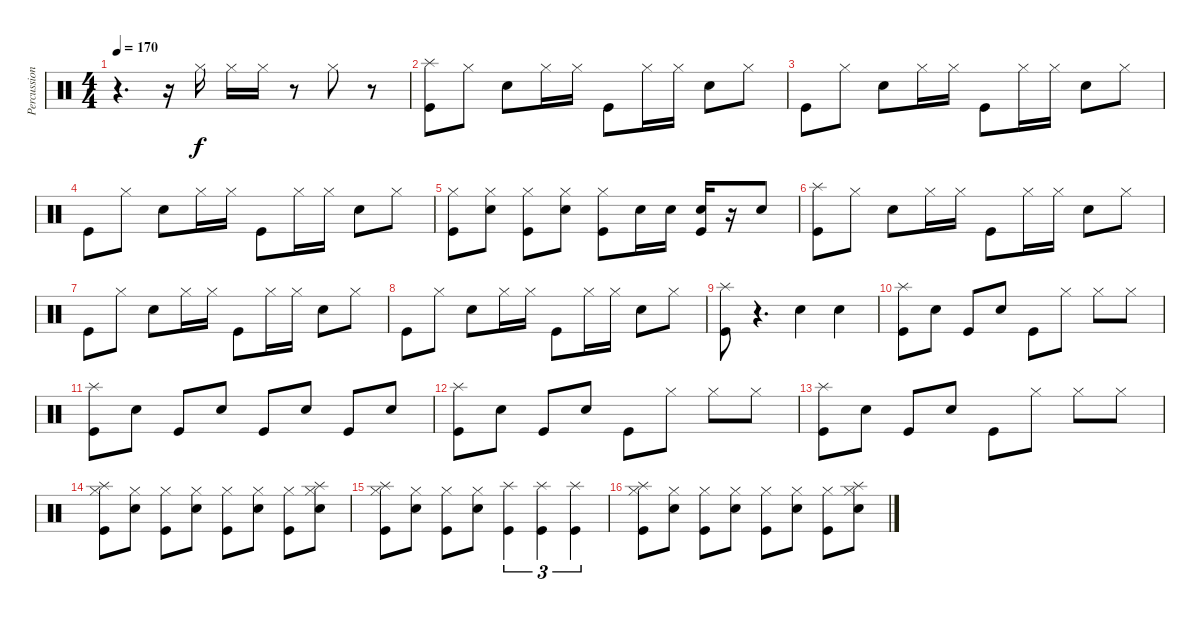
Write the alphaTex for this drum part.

\track ("Percussion" "Percussion") {instrument percussion}
\staff {score}
\articulation defaults
\ts (4 4)
\tempo 170
\clef neutral
\ks c
r.4{d dy f} r.16 "Hi-Hat (closed)".16 "Hi-Hat (closed)".16 "Hi-Hat (closed)".16 r.8 "Hi-Hat (closed)".8 r.8 |
("Splash (hit)" "Kick (hit)").8 "Hi-Hat (closed)".8 "Electric Snare (hit)".8 "Hi-Hat (closed)".16 "Hi-Hat (closed)".16 "Kick (hit)".8 "Hi-Hat (closed)".16 "Hi-Hat (closed)".16 "Electric Snare (hit)".8 "Hi-Hat (closed)".8 |
"Kick (hit)".8 "Hi-Hat (closed)".8 "Electric Snare (hit)".8 "Hi-Hat (closed)".16 "Hi-Hat (closed)".16 "Kick (hit)".8 "Hi-Hat (closed)".16 "Hi-Hat (closed)".16 "Electric Snare (hit)".8 "Hi-Hat (closed)".8 |
"Kick (hit)".8 "Hi-Hat (closed)".8 "Electric Snare (hit)".8 "Hi-Hat (closed)".16 "Hi-Hat (closed)".16 "Kick (hit)".8 "Hi-Hat (closed)".16 "Hi-Hat (closed)".16 "Electric Snare (hit)".8 "Hi-Hat (closed)".8 |
("Hi-Hat (closed)" "Kick (hit)").8 ("Hi-Hat (closed)" "Electric Snare (hit)").8 ("Hi-Hat (closed)" "Kick (hit)").8 ("Hi-Hat (closed)" "Electric Snare (hit)").8 ("Hi-Hat (closed)" "Kick (hit)").8 "Electric Snare (hit)".16 "Electric Snare (hit)".16 ("Electric Snare (hit)" "Kick (hit)").16 r.16 "Electric Snare (hit)".8 |
("Splash (hit)" "Kick (hit)").8 "Hi-Hat (closed)".8 "Electric Snare (hit)".8 "Hi-Hat (closed)".16 "Hi-Hat (closed)".16 "Kick (hit)".8 "Hi-Hat (closed)".16 "Hi-Hat (closed)".16 "Electric Snare (hit)".8 "Hi-Hat (closed)".8 |
"Kick (hit)".8 "Hi-Hat (closed)".8 "Electric Snare (hit)".8 "Hi-Hat (closed)".16 "Hi-Hat (closed)".16 "Kick (hit)".8 "Hi-Hat (closed)".16 "Hi-Hat (closed)".16 "Electric Snare (hit)".8 "Hi-Hat (closed)".8 |
"Kick (hit)".8 "Hi-Hat (closed)".8 "Electric Snare (hit)".8 "Hi-Hat (closed)".16 "Hi-Hat (closed)".16 "Kick (hit)".8 "Hi-Hat (closed)".16 "Hi-Hat (closed)".16 "Electric Snare (hit)".8 "Hi-Hat (closed)".8 |
("Splash (hit)" "Kick (hit)").8 r.4{d} "Electric Snare (hit)".4 "Electric Snare (hit)".4 |
("Splash (hit)" "Kick (hit)").8 "Electric Snare (hit)".8 "Kick (hit)".8 "Electric Snare (hit)".8 "Kick (hit)".8 "Hi-Hat (closed)".8 "Hi-Hat (closed)".8 "Hi-Hat (closed)".8 |
("Splash (hit)" "Kick (hit)").8 "Electric Snare (hit)".8 "Kick (hit)".8 "Electric Snare (hit)".8 "Kick (hit)".8 "Electric Snare (hit)".8 "Kick (hit)".8 "Electric Snare (hit)".8 |
("Splash (hit)" "Kick (hit)").8 "Electric Snare (hit)".8 "Kick (hit)".8 "Electric Snare (hit)".8 "Kick (hit)".8 "Hi-Hat (closed)".8 "Hi-Hat (closed)".8 "Hi-Hat (closed)".8 |
("Splash (hit)" "Kick (hit)").8 "Electric Snare (hit)".8 "Kick (hit)".8 "Electric Snare (hit)".8 "Kick (hit)".8 "Hi-Hat (closed)".8 "Hi-Hat (closed)".8 "Hi-Hat (closed)".8 |
("Splash (hit)" "Hi-Hat (closed)" "Kick (hit)").8 ("Hi-Hat (closed)" "Electric Snare (hit)").8 ("Hi-Hat (closed)" "Kick (hit)").8 ("Hi-Hat (closed)" "Electric Snare (hit)").8 ("Hi-Hat (closed)" "Kick (hit)").8 ("Hi-Hat (closed)" "Electric Snare (hit)").8 ("Hi-Hat (closed)" "Kick (hit)").8 ("Splash (hit)" "Hi-Hat (closed)" "Electric Snare (hit)").8 |
("Splash (hit)" "Hi-Hat (closed)" "Kick (hit)").8 ("Hi-Hat (closed)" "Electric Snare (hit)").8 ("Hi-Hat (closed)" "Kick (hit)").8 ("Hi-Hat (closed)" "Electric Snare (hit)").8 ("Splash (hit)" "Kick (hit)").4{tu (3 2)} ("Splash (hit)" "Kick (hit)").4{tu (3 2)} ("Splash (hit)" "Kick (hit)").4{tu (3 2)} |
("Splash (hit)" "Hi-Hat (closed)" "Kick (hit)").8 ("Hi-Hat (closed)" "Electric Snare (hit)").8 ("Hi-Hat (closed)" "Kick (hit)").8 ("Hi-Hat (closed)" "Electric Snare (hit)").8 ("Hi-Hat (closed)" "Kick (hit)").8 ("Hi-Hat (closed)" "Electric Snare (hit)").8 ("Hi-Hat (closed)" "Kick (hit)").8 ("Splash (hit)" "Hi-Hat (closed)" "Electric Snare (hit)").8
